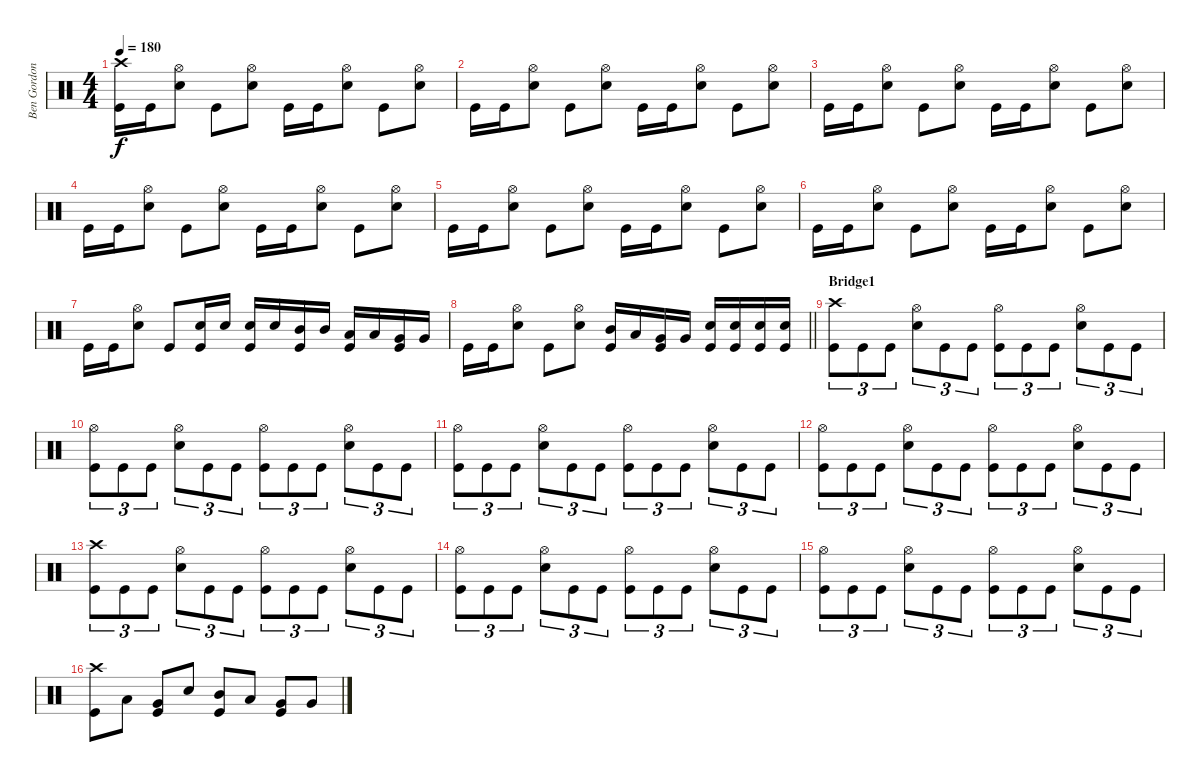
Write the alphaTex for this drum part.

\track ("Ben Gordon" "Ben Gordon") {instrument percussion}
\staff {score}
\articulation defaults
\ts (4 4)
\tempo 180
\clef neutral
\ks c
("Crash high (hit)" "Kick (hit)").16{dy f} "Kick (hit)".16 ("Hi-Hat (open)" "Electric Snare (hit)").8 "Kick (hit)".8 ("Hi-Hat (open)" "Electric Snare (hit)").8 "Kick (hit)".16 "Kick (hit)".16 ("Hi-Hat (open)" "Electric Snare (hit)").8 "Kick (hit)".8 ("Hi-Hat (open)" "Electric Snare (hit)").8 |
"Kick (hit)".16 "Kick (hit)".16 ("Hi-Hat (open)" "Electric Snare (hit)").8 "Kick (hit)".8 ("Hi-Hat (open)" "Electric Snare (hit)").8 "Kick (hit)".16 "Kick (hit)".16 ("Hi-Hat (open)" "Electric Snare (hit)").8 "Kick (hit)".8 ("Hi-Hat (open)" "Electric Snare (hit)").8 |
"Kick (hit)".16 "Kick (hit)".16 ("Hi-Hat (open)" "Electric Snare (hit)").8 "Kick (hit)".8 ("Hi-Hat (open)" "Electric Snare (hit)").8 "Kick (hit)".16 "Kick (hit)".16 ("Hi-Hat (open)" "Electric Snare (hit)").8 "Kick (hit)".8 ("Hi-Hat (open)" "Electric Snare (hit)").8 |
"Kick (hit)".16 "Kick (hit)".16 ("Hi-Hat (open)" "Electric Snare (hit)").8 "Kick (hit)".8 ("Hi-Hat (open)" "Electric Snare (hit)").8 "Kick (hit)".16 "Kick (hit)".16 ("Hi-Hat (open)" "Electric Snare (hit)").8 "Kick (hit)".8 ("Hi-Hat (open)" "Electric Snare (hit)").8 |
"Kick (hit)".16 "Kick (hit)".16 ("Hi-Hat (open)" "Electric Snare (hit)").8 "Kick (hit)".8 ("Hi-Hat (open)" "Electric Snare (hit)").8 "Kick (hit)".16 "Kick (hit)".16 ("Hi-Hat (open)" "Electric Snare (hit)").8 "Kick (hit)".8 ("Hi-Hat (open)" "Electric Snare (hit)").8 |
"Kick (hit)".16 "Kick (hit)".16 ("Hi-Hat (open)" "Electric Snare (hit)").8 "Kick (hit)".8 ("Hi-Hat (open)" "Electric Snare (hit)").8 "Kick (hit)".16 "Kick (hit)".16 ("Hi-Hat (open)" "Electric Snare (hit)").8 "Kick (hit)".8 ("Hi-Hat (open)" "Electric Snare (hit)").8 |
"Kick (hit)".16 "Kick (hit)".16 ("Hi-Hat (open)" "Electric Snare (hit)").8 "Kick (hit)".8 ("Electric Snare (hit)" "Kick (hit)").16 "Electric Snare (hit)".16 ("Electric Snare (hit)" "Kick (hit)").16 "Electric Snare (hit)".16 ("Mid Tom (hit)" "Kick (hit)").16 "Mid Tom (hit)".16 ("Low Tom (hit)" "Kick (hit)").16 "Low Tom (hit)".16 ("Very Low Tom (hit)" "Kick (hit)").16 "Very Low Tom (hit)".16 |
\barLineRight lightlight "Kick (hit)".16 "Kick (hit)".16
("Hi-Hat (open)" "Electric Snare (hit)").8 "Kick (hit)".8 ("Hi-Hat (open)" "Electric Snare (hit)").8 ("Mid Tom (hit)" "Kick (hit)").16 "Low Tom (hit)".16 ("Very Low Tom (hit)" "Kick (hit)").16 "Very Low Tom (hit)".16 ("Electric Snare (hit)" "Kick (hit)").16 ("Electric Snare (hit)" "Kick (hit)").16 ("Electric Snare (hit)" "Kick (hit)").16 ("Electric Snare (hit)" "Kick (hit)").16 |
\section ("" "Bridge1")
("Crash high (hit)" "Kick (hit)").8{tu (3 2)} "Kick (hit)".8{tu (3 2)} "Kick (hit)".8{tu (3 2)} ("Hi-Hat (open)" "Electric Snare (hit)").8{tu (3 2)} "Kick (hit)".8{tu (3 2)} "Kick (hit)".8{tu (3 2)} ("Hi-Hat (open)" "Kick (hit)").8{tu (3 2)} "Kick (hit)".8{tu (3 2)} "Kick (hit)".8{tu (3 2)} ("Hi-Hat (open)" "Electric Snare (hit)").8{tu (3 2)} "Kick (hit)".8{tu (3 2)} "Kick (hit)".8{tu (3 2)} |
("Hi-Hat (open)" "Kick (hit)").8{tu (3 2)} "Kick (hit)".8{tu (3 2)} "Kick (hit)".8{tu (3 2)} ("Hi-Hat (open)" "Electric Snare (hit)").8{tu (3 2)} "Kick (hit)".8{tu (3 2)} "Kick (hit)".8{tu (3 2)} ("Hi-Hat (open)" "Kick (hit)").8{tu (3 2)} "Kick (hit)".8{tu (3 2)} "Kick (hit)".8{tu (3 2)} ("Hi-Hat (open)" "Electric Snare (hit)").8{tu (3 2)} "Kick (hit)".8{tu (3 2)} "Kick (hit)".8{tu (3 2)} |
("Hi-Hat (open)" "Kick (hit)").8{tu (3 2)} "Kick (hit)".8{tu (3 2)} "Kick (hit)".8{tu (3 2)} ("Hi-Hat (open)" "Electric Snare (hit)").8{tu (3 2)} "Kick (hit)".8{tu (3 2)} "Kick (hit)".8{tu (3 2)} ("Hi-Hat (open)" "Kick (hit)").8{tu (3 2)} "Kick (hit)".8{tu (3 2)} "Kick (hit)".8{tu (3 2)} ("Hi-Hat (open)" "Electric Snare (hit)").8{tu (3 2)} "Kick (hit)".8{tu (3 2)} "Kick (hit)".8{tu (3 2)} |
("Hi-Hat (open)" "Kick (hit)").8{tu (3 2)} "Kick (hit)".8{tu (3 2)} "Kick (hit)".8{tu (3 2)} ("Hi-Hat (open)" "Electric Snare (hit)").8{tu (3 2)} "Kick (hit)".8{tu (3 2)} "Kick (hit)".8{tu (3 2)} ("Hi-Hat (open)" "Kick (hit)").8{tu (3 2)} "Kick (hit)".8{tu (3 2)} "Kick (hit)".8{tu (3 2)} ("Hi-Hat (open)" "Electric Snare (hit)").8{tu (3 2)} "Kick (hit)".8{tu (3 2)} "Kick (hit)".8{tu (3 2)} |
("Crash high (hit)" "Kick (hit)").8{tu (3 2)} "Kick (hit)".8{tu (3 2)} "Kick (hit)".8{tu (3 2)} ("Hi-Hat (open)" "Electric Snare (hit)").8{tu (3 2)} "Kick (hit)".8{tu (3 2)} "Kick (hit)".8{tu (3 2)} ("Hi-Hat (open)" "Kick (hit)").8{tu (3 2)} "Kick (hit)".8{tu (3 2)} "Kick (hit)".8{tu (3 2)} ("Hi-Hat (open)" "Electric Snare (hit)").8{tu (3 2)} "Kick (hit)".8{tu (3 2)} "Kick (hit)".8{tu (3 2)} |
("Hi-Hat (open)" "Kick (hit)").8{tu (3 2)} "Kick (hit)".8{tu (3 2)} "Kick (hit)".8{tu (3 2)} ("Hi-Hat (open)" "Electric Snare (hit)").8{tu (3 2)} "Kick (hit)".8{tu (3 2)} "Kick (hit)".8{tu (3 2)} ("Hi-Hat (open)" "Kick (hit)").8{tu (3 2)} "Kick (hit)".8{tu (3 2)} "Kick (hit)".8{tu (3 2)} ("Hi-Hat (open)" "Electric Snare (hit)").8{tu (3 2)} "Kick (hit)".8{tu (3 2)} "Kick (hit)".8{tu (3 2)} |
("Hi-Hat (open)" "Kick (hit)").8{tu (3 2)} "Kick (hit)".8{tu (3 2)} "Kick (hit)".8{tu (3 2)} ("Hi-Hat (open)" "Electric Snare (hit)").8{tu (3 2)} "Kick (hit)".8{tu (3 2)} "Kick (hit)".8{tu (3 2)} ("Hi-Hat (open)" "Kick (hit)").8{tu (3 2)} "Kick (hit)".8{tu (3 2)} "Kick (hit)".8{tu (3 2)} ("Hi-Hat (open)" "Electric Snare (hit)").8{tu (3 2)} "Kick (hit)".8{tu (3 2)} "Kick (hit)".8{tu (3 2)} |
("Crash high (hit)" "Kick (hit)").8 "Low Tom (hit)".8 ("Very Low Tom (hit)" "Kick (hit)").8 "Electric Snare (hit)".8 ("Mid Tom (hit)" "Kick (hit)").8 "Low Tom (hit)".8 ("Very Low Tom (hit)" "Kick (hit)").8 "Very Low Tom (hit)".8
